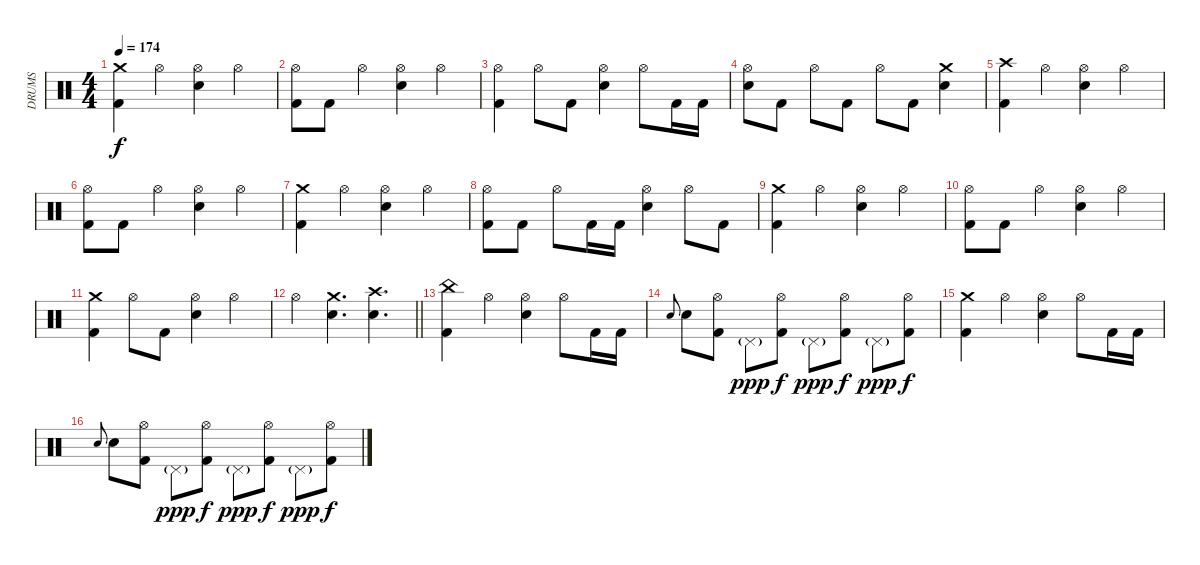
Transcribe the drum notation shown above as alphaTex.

\track ("DRUMS" "DRUMS") {instrument percussion}
\staff {score}
\articulation defaults
\ts (4 4)
\tempo 174
\clef neutral
\ks c
("Crash medium (hit)" "Kick (hit) 2").4{dy f} "Hi-Hat (open)".4 ("Hi-Hat (open)" "Snare (hit) 2").4 "Hi-Hat (open)".4 |
("Hi-Hat (open)" "Kick (hit) 2").8 "Kick (hit) 2".8 "Hi-Hat (open)".4 ("Hi-Hat (open)" "Snare (hit) 2").4 "Hi-Hat (open)".4 |
("Hi-Hat (open)" "Kick (hit) 2").4 "Hi-Hat (open)".8 "Kick (hit) 2".8 ("Hi-Hat (open)" "Snare (hit) 2").4 "Hi-Hat (open)".8 "Kick (hit) 2".16 "Kick (hit) 2".16 |
("Hi-Hat (open)" "Snare (hit) 2").8 "Kick (hit) 2".8 "Hi-Hat (open)".8 "Kick (hit) 2".8 "Hi-Hat (open)".8 "Kick (hit) 2".8 ("Crash medium (hit)" "Snare (hit) 2").4 |
("Crash high (hit)" "Kick (hit) 2").4 "Hi-Hat (open)".4 ("Hi-Hat (open)" "Snare (hit) 2").4 "Hi-Hat (open)".4 |
("Hi-Hat (open)" "Kick (hit) 2").8 "Kick (hit) 2".8 "Hi-Hat (open)".4 ("Hi-Hat (open)" "Snare (hit) 2").4 "Hi-Hat (open)".4 |
("Crash medium (hit)" "Kick (hit) 2").4 "Hi-Hat (open)".4 ("Hi-Hat (open)" "Snare (hit) 2").4 "Hi-Hat (open)".4 |
("Hi-Hat (open)" "Kick (hit) 2").8 "Kick (hit) 2".8 "Hi-Hat (open)".8 "Kick (hit) 2".16 "Kick (hit) 2".16 ("Hi-Hat (open)" "Snare (hit) 2").4 "Hi-Hat (open)".8 "Kick (hit) 2".8 |
("Crash medium (hit)" "Kick (hit) 2").4 "Hi-Hat (open)".4 ("Hi-Hat (open)" "Snare (hit) 2").4 "Hi-Hat (open)".4 |
("Hi-Hat (open)" "Kick (hit) 2").8 "Kick (hit) 2".8 "Hi-Hat (open)".4 ("Hi-Hat (open)" "Snare (hit) 2").4 "Hi-Hat (open)".4 |
("Crash medium (hit)" "Kick (hit) 2").4 "Hi-Hat (open)".8 "Kick (hit) 2".8 ("Hi-Hat (open)" "Snare (hit) 2").4 "Hi-Hat (open)".4 |
\barLineRight lightlight "Hi-Hat (open)".4
("Crash medium (hit)" "Snare (hit) 2").4{d} ("Crash high (hit)" "Snare (hit) 2").4{d} |
("China (hit)" "Kick (hit) 2").4 "Hi-Hat (open)".4 ("Hi-Hat (open)" "Snare (hit) 2").4 "Hi-Hat (open)".8 "Kick (hit) 2".16 "Kick (hit) 2".16 |
"Snare (hit) 2".8{gr onbeat} "Snare (hit) 2".8 ("Hi-Hat (open)" "Kick (hit) 2").8 "Pedal Hi-Hat (hit)"{g}.8{dy ppp} ("Hi-Hat (open)" "Kick (hit) 2").8{dy f} "Pedal Hi-Hat (hit)"{g}.8{dy ppp} ("Hi-Hat (open)" "Kick (hit) 2").8{dy f} "Pedal Hi-Hat (hit)"{g}.8{dy ppp} ("Hi-Hat (open)" "Kick (hit) 2").8{dy f} |
("Crash medium (hit)" "Kick (hit) 2").4 "Hi-Hat (open)".4 ("Hi-Hat (open)" "Snare (hit) 2").4 "Hi-Hat (open)".8 "Kick (hit) 2".16 "Kick (hit) 2".16 |
"Snare (hit) 2".8{gr onbeat} "Snare (hit) 2".8 ("Hi-Hat (open)" "Kick (hit) 2").8 "Pedal Hi-Hat (hit)"{g}.8{dy ppp} ("Hi-Hat (open)" "Kick (hit) 2").8{dy f} "Pedal Hi-Hat (hit)"{g}.8{dy ppp} ("Hi-Hat (open)" "Kick (hit) 2").8{dy f} "Pedal Hi-Hat (hit)"{g}.8{dy ppp} ("Hi-Hat (open)" "Kick (hit) 2").8{dy f}
